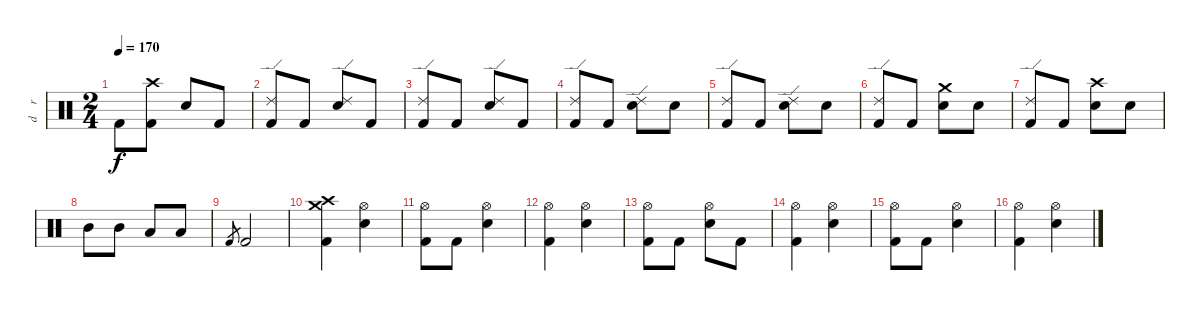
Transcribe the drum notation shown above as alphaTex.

\track ("d    r     u     m    s" "d    r    ") {instrument percussion}
\staff {score}
\articulation defaults
\ts (2 4)
\tempo 170
\clef neutral
\ks c "Kick (hit) 2".8{dy f}
("Crash high (hit)" "Kick (hit) 2").8 "Electric Snare (hit)".8 "Kick (hit) 2".8 |
("Ride (edge) 2" "Kick (hit) 2").8 "Kick (hit) 2".8 ("Ride (edge) 2" "Electric Snare (hit)").8 "Kick (hit) 2".8 |
("Ride (edge) 2" "Kick (hit) 2").8 "Kick (hit) 2".8 ("Ride (edge) 2" "Electric Snare (hit)").8 "Kick (hit) 2".8 |
("Ride (edge) 2" "Kick (hit) 2").8 "Kick (hit) 2".8 ("Ride (edge) 2" "Electric Snare (hit)").8 "Electric Snare (hit)".8 |
("Ride (edge) 2" "Kick (hit) 2").8 "Kick (hit) 2".8 ("Ride (edge) 2" "Electric Snare (hit)").8 "Electric Snare (hit)".8 |
("Ride (edge) 2" "Kick (hit) 2").8 "Kick (hit) 2".8 ("Crash medium (hit)" "Electric Snare (hit)").8 "Electric Snare (hit)".8 |
("Ride (edge) 2" "Kick (hit) 2").8 "Kick (hit) 2".8 ("Crash high (hit)" "Electric Snare (hit)").8 "Electric Snare (hit)".8 |
"Mid Tom (hit)".8 "Mid Tom (hit)".8 "Low Tom (hit)".8 "Low Tom (hit)".8 |
"Kick (hit) 2".8{gr} "Kick (hit) 2".2 |
("Crash high (hit)" "Crash medium (hit)" "Kick (hit) 2").4 ("Hi-Hat (open)" "Electric Snare (hit)").4 |
("Hi-Hat (open)" "Kick (hit) 2").8 "Kick (hit) 2".8 ("Hi-Hat (open)" "Electric Snare (hit)").4 |
("Hi-Hat (open)" "Kick (hit) 2").4 ("Hi-Hat (open)" "Electric Snare (hit)").4 |
("Hi-Hat (open)" "Kick (hit) 2").8 "Kick (hit) 2".8 ("Hi-Hat (open)" "Electric Snare (hit)").8 "Kick (hit) 2".8 |
("Hi-Hat (open)" "Kick (hit) 2").4 ("Hi-Hat (open)" "Electric Snare (hit)").4 |
("Hi-Hat (open)" "Kick (hit) 2").8 "Kick (hit) 2".8 ("Hi-Hat (open)" "Electric Snare (hit)").4 |
("Hi-Hat (open)" "Kick (hit) 2").4 ("Hi-Hat (open)" "Electric Snare (hit)").4
